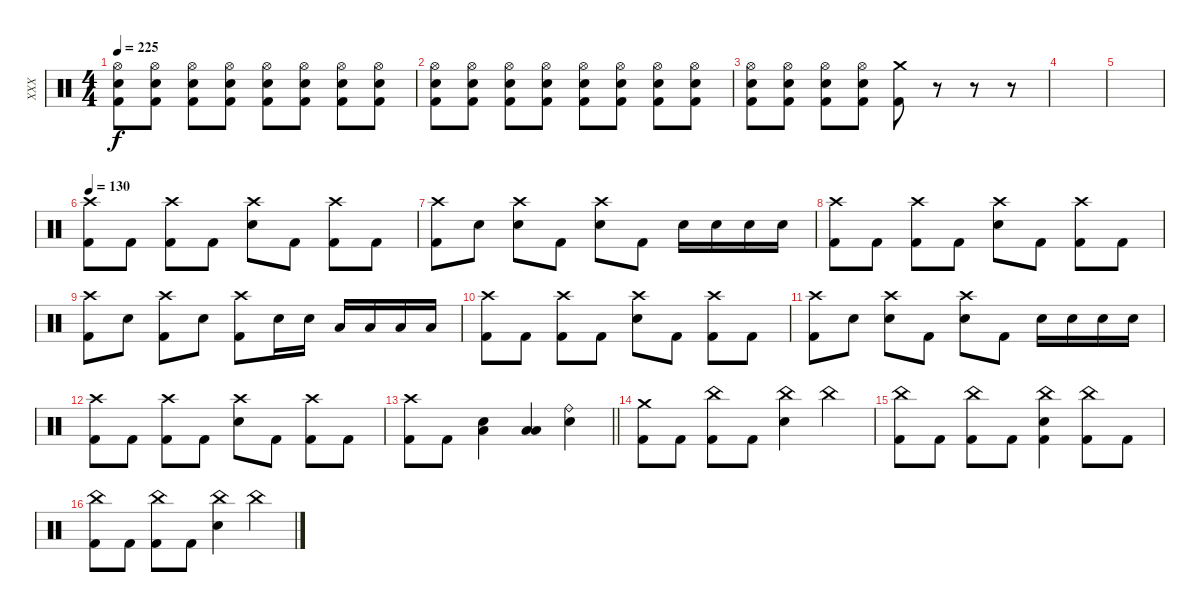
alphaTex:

\track ("XXX" "XXX") {instrument percussion}
\staff {score}
\articulation defaults
\ts (4 4)
\tempo 225
\clef neutral
\ks c
("Hi-Hat (open)" "Electric Snare (hit)" "Kick (hit) 2").8{dy f} ("Hi-Hat (open)" "Electric Snare (hit)" "Kick (hit) 2").8 ("Hi-Hat (open)" "Electric Snare (hit)" "Kick (hit) 2").8 ("Hi-Hat (open)" "Electric Snare (hit)" "Kick (hit) 2").8 ("Hi-Hat (open)" "Electric Snare (hit)" "Kick (hit) 2").8 ("Hi-Hat (open)" "Electric Snare (hit)" "Kick (hit) 2").8 ("Hi-Hat (open)" "Electric Snare (hit)" "Kick (hit) 2").8 ("Hi-Hat (open)" "Electric Snare (hit)" "Kick (hit) 2").8 |
("Hi-Hat (open)" "Electric Snare (hit)" "Kick (hit) 2").8 ("Hi-Hat (open)" "Electric Snare (hit)" "Kick (hit) 2").8 ("Hi-Hat (open)" "Electric Snare (hit)" "Kick (hit) 2").8 ("Hi-Hat (open)" "Electric Snare (hit)" "Kick (hit) 2").8 ("Hi-Hat (open)" "Electric Snare (hit)" "Kick (hit) 2").8 ("Hi-Hat (open)" "Electric Snare (hit)" "Kick (hit) 2").8 ("Hi-Hat (open)" "Electric Snare (hit)" "Kick (hit) 2").8 ("Hi-Hat (open)" "Electric Snare (hit)" "Kick (hit) 2").8 |
("Hi-Hat (open)" "Electric Snare (hit)" "Kick (hit) 2").8 ("Hi-Hat (open)" "Electric Snare (hit)" "Kick (hit) 2").8 ("Hi-Hat (open)" "Electric Snare (hit)" "Kick (hit) 2").8 ("Hi-Hat (open)" "Electric Snare (hit)" "Kick (hit) 2").8 ("Crash medium (hit)" "Kick (hit) 2").8 r.8 r.8 r.8 |
|
|
\tempo 130
("Kick (hit) 2" "Crash high (hit)").8 "Kick (hit) 2".8 ("Kick (hit) 2" "Crash high (hit)").8 "Kick (hit) 2".8 ("Crash high (hit)" "Electric Snare (hit)").8 "Kick (hit) 2".8 ("Kick (hit) 2" "Crash high (hit)").8 "Kick (hit) 2".8 |
("Kick (hit) 2" "Crash high (hit)").8 "Electric Snare (hit)".8 ("Electric Snare (hit)" "Crash high (hit)").8 "Kick (hit) 2".8 ("Electric Snare (hit)" "Crash high (hit)").8 "Kick (hit) 2".8 "Electric Snare (hit)".16 "Electric Snare (hit)".16 "Electric Snare (hit)".16 "Electric Snare (hit)".16 |
("Kick (hit) 2" "Crash high (hit)").8 "Kick (hit) 2".8 ("Kick (hit) 2" "Crash high (hit)").8 "Kick (hit) 2".8 ("Crash high (hit)" "Electric Snare (hit)").8 "Kick (hit) 2".8 ("Kick (hit) 2" "Crash high (hit)").8 "Kick (hit) 2".8 |
("Kick (hit) 2" "Crash high (hit)").8 "Electric Snare (hit)".8 ("Kick (hit) 2" "Crash high (hit)").8 "Electric Snare (hit)".8 ("Kick (hit) 2" "Crash high (hit)").8 "Electric Snare (hit)".16 "Electric Snare (hit)".16 "Low Tom (hit)".16 "Low Tom (hit)".16 "Low Floor Tom (hit)".16 "Low Floor Tom (hit)".16 |
("Kick (hit) 2" "Crash high (hit)").8 "Kick (hit) 2".8 ("Kick (hit) 2" "Crash high (hit)").8 "Kick (hit) 2".8 ("Crash high (hit)" "Electric Snare (hit)").8 "Kick (hit) 2".8 ("Kick (hit) 2" "Crash high (hit)").8 "Kick (hit) 2".8 |
("Kick (hit) 2" "Crash high (hit)").8 "Electric Snare (hit)".8 ("Electric Snare (hit)" "Crash high (hit)").8 "Kick (hit) 2".8 ("Electric Snare (hit)" "Crash high (hit)").8 "Kick (hit) 2".8 "Electric Snare (hit)".16 "Electric Snare (hit)".16 "Electric Snare (hit)".16 "Electric Snare (hit)".16 |
("Kick (hit) 2" "Crash high (hit)").8 "Kick (hit) 2".8 ("Kick (hit) 2" "Crash high (hit)").8 "Kick (hit) 2".8 ("Crash high (hit)" "Electric Snare (hit)").8 "Kick (hit) 2".8 ("Kick (hit) 2" "Crash high (hit)").8 "Kick (hit) 2".8 |
\barLineRight lightlight
("Kick (hit) 2" "Crash high (hit)").8 "Kick (hit) 2".8 ("Low Tom (hit)" "Electric Snare (hit)").4 ("Low Floor Tom (hit)" "Low Tom (hit)").4 ("Ride (bell)" "Electric Snare (hit)").4 |
("Crash medium (hit)" "Kick (hit) 2").8 "Kick (hit) 2".8 ("China (hit)" "Kick (hit) 2").8 "Kick (hit) 2".8 ("China (hit)" "Electric Snare (hit)").4 "China (hit)".4 |
("China (hit)" "Kick (hit) 2").8 "Kick (hit) 2".8 ("China (hit)" "Kick (hit) 2").8 "Kick (hit) 2".8 ("China (hit)" "Kick (hit) 2" "Electric Snare (hit)").4 ("China (hit)" "Kick (hit) 2").8 "Kick (hit) 2".8 |
("China (hit)" "Kick (hit) 2").8 "Kick (hit) 2".8 ("China (hit)" "Kick (hit) 2").8 "Kick (hit) 2".8 ("China (hit)" "Electric Snare (hit)").4 "China (hit)".4
